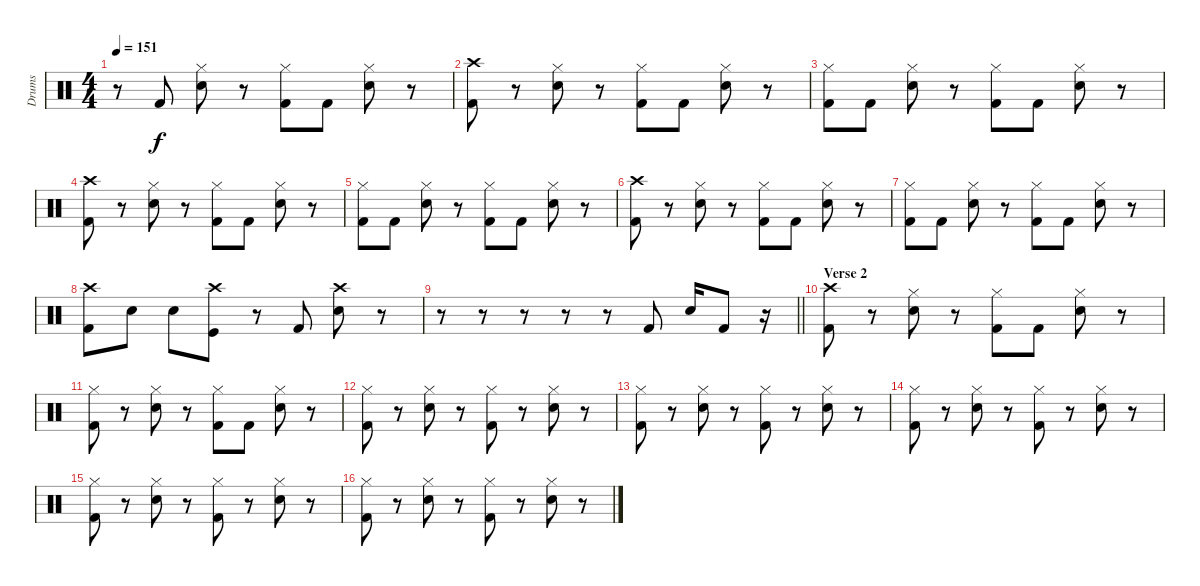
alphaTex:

\track ("Drums" "Drums") {instrument percussion}
\staff {score}
\articulation defaults
\ts (4 4)
\tempo 151
\clef neutral
\ks c
r.8{dy f} "Kick (hit) 2".8 ("Hi-Hat (closed)" "Snare (hit) 2").8 r.8 ("Hi-Hat (closed)" "Kick (hit) 2").8 "Kick (hit) 2".8 ("Hi-Hat (closed)" "Snare (hit) 2").8 r.8 |
("Crash high (hit)" "Kick (hit) 2").8 r.8 ("Hi-Hat (closed)" "Snare (hit) 2").8 r.8 ("Hi-Hat (closed)" "Kick (hit) 2").8 "Kick (hit) 2".8 ("Hi-Hat (closed)" "Snare (hit) 2").8 r.8 |
("Hi-Hat (closed)" "Kick (hit) 2").8 "Kick (hit) 2".8 ("Hi-Hat (closed)" "Snare (hit) 2").8 r.8 ("Hi-Hat (closed)" "Kick (hit) 2").8 "Kick (hit) 2".8 ("Hi-Hat (closed)" "Snare (hit) 2").8 r.8 |
("Crash high (hit)" "Kick (hit) 2").8 r.8 ("Hi-Hat (closed)" "Snare (hit) 2").8 r.8 ("Hi-Hat (closed)" "Kick (hit) 2").8 "Kick (hit) 2".8 ("Hi-Hat (closed)" "Snare (hit) 2").8 r.8 |
("Hi-Hat (closed)" "Kick (hit) 2").8 "Kick (hit) 2".8 ("Hi-Hat (closed)" "Snare (hit) 2").8 r.8 ("Hi-Hat (closed)" "Kick (hit) 2").8 "Kick (hit) 2".8 ("Hi-Hat (closed)" "Snare (hit) 2").8 r.8 |
("Crash high (hit)" "Kick (hit) 2").8 r.8 ("Hi-Hat (closed)" "Snare (hit) 2").8 r.8 ("Hi-Hat (closed)" "Kick (hit) 2").8 "Kick (hit) 2".8 ("Hi-Hat (closed)" "Snare (hit) 2").8 r.8 |
("Hi-Hat (closed)" "Kick (hit) 2").8 "Kick (hit) 2".8 ("Hi-Hat (closed)" "Snare (hit) 2").8 r.8 ("Hi-Hat (closed)" "Kick (hit) 2").8 "Kick (hit) 2".8 ("Hi-Hat (closed)" "Snare (hit) 2").8 r.8 |
("Crash high (hit)" "Kick (hit) 2").8 "Snare (hit) 2".8 "Snare (hit) 2".8 ("Crash high (hit)" "Kick (hit)").8 r.8 "Kick (hit) 2".8 ("Crash high (hit)" "Snare (hit) 2").8 r.8 |
\barLineRight lightlight
r.8 r.8 r.8 r.8 r.8 "Kick (hit) 2".8 "Snare (hit) 2".16 "Kick (hit) 2".8 r.16 |
\section ("" "Verse 2")
("Crash high (hit)" "Kick (hit) 2").8 r.8 ("Hi-Hat (closed)" "Snare (hit) 2").8 r.8 ("Hi-Hat (closed)" "Kick (hit) 2").8 "Kick (hit) 2".8 ("Hi-Hat (closed)" "Snare (hit) 2").8 r.8 |
("Hi-Hat (closed)" "Kick (hit) 2").8 r.8 ("Hi-Hat (closed)" "Snare (hit) 2").8 r.8 ("Hi-Hat (closed)" "Kick (hit) 2").8 "Kick (hit) 2".8 ("Hi-Hat (closed)" "Snare (hit) 2").8 r.8 |
("Hi-Hat (closed)" "Kick (hit) 2").8 r.8 ("Hi-Hat (closed)" "Snare (hit) 2").8 r.8 ("Hi-Hat (closed)" "Kick (hit) 2").8 r.8 ("Hi-Hat (closed)" "Snare (hit) 2").8 r.8 |
("Hi-Hat (closed)" "Kick (hit) 2").8 r.8 ("Hi-Hat (closed)" "Snare (hit) 2").8 r.8 ("Hi-Hat (closed)" "Kick (hit) 2").8 r.8 ("Hi-Hat (closed)" "Snare (hit) 2").8 r.8 |
("Hi-Hat (closed)" "Kick (hit) 2").8 r.8 ("Hi-Hat (closed)" "Snare (hit) 2").8 r.8 ("Hi-Hat (closed)" "Kick (hit) 2").8 r.8 ("Hi-Hat (closed)" "Snare (hit) 2").8 r.8 |
("Hi-Hat (closed)" "Kick (hit) 2").8 r.8 ("Hi-Hat (closed)" "Snare (hit) 2").8 r.8 ("Hi-Hat (closed)" "Kick (hit) 2").8 r.8 ("Hi-Hat (closed)" "Snare (hit) 2").8 r.8 |
("Hi-Hat (closed)" "Kick (hit) 2").8 r.8 ("Hi-Hat (closed)" "Snare (hit) 2").8 r.8 ("Hi-Hat (closed)" "Kick (hit) 2").8 r.8 ("Hi-Hat (closed)" "Snare (hit) 2").8 r.8
